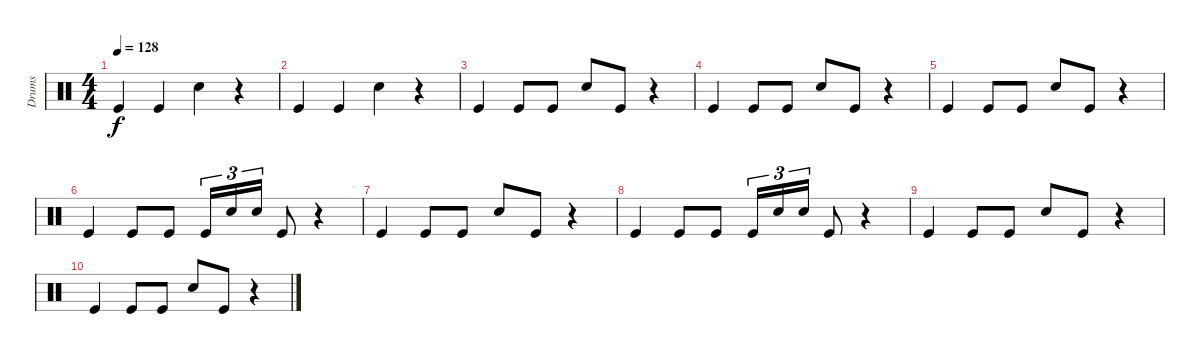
\track ("Drums" "Drums") {instrument percussion}
\staff {score}
\articulation defaults
\ts (4 4)
\tempo 128
\clef neutral
\ks c "Kick (hit)".4{dy f} "Kick (hit)".4 "Snare (hit) 2".4
r.4 |
"Kick (hit)".4 "Kick (hit)".4 "Snare (hit) 2".4 r.4 |
"Kick (hit)".4 "Kick (hit)".8 "Kick (hit)".8 "Snare (hit) 2".8 "Kick (hit)".8 r.4 |
"Kick (hit)".4 "Kick (hit)".8 "Kick (hit)".8 "Snare (hit) 2".8 "Kick (hit)".8 r.4 |
"Kick (hit)".4 "Kick (hit)".8 "Kick (hit)".8 "Snare (hit) 2".8 "Kick (hit)".8 r.4 |
"Kick (hit)".4 "Kick (hit)".8 "Kick (hit)".8 "Kick (hit)".16{tu (3 2)} "Snare (hit) 2".16{tu (3 2)} "Snare (hit) 2".16{tu (3 2)} "Kick (hit)".8 r.4 |
"Kick (hit)".4 "Kick (hit)".8 "Kick (hit)".8 "Snare (hit) 2".8 "Kick (hit)".8 r.4 |
"Kick (hit)".4 "Kick (hit)".8 "Kick (hit)".8 "Kick (hit)".16{tu (3 2)} "Snare (hit) 2".16{tu (3 2)} "Snare (hit) 2".16{tu (3 2)} "Kick (hit)".8 r.4 |
"Kick (hit)".4 "Kick (hit)".8 "Kick (hit)".8 "Snare (hit) 2".8 "Kick (hit)".8 r.4 |
"Kick (hit)".4 "Kick (hit)".8 "Kick (hit)".8 "Snare (hit) 2".8 "Kick (hit)".8 r.4
